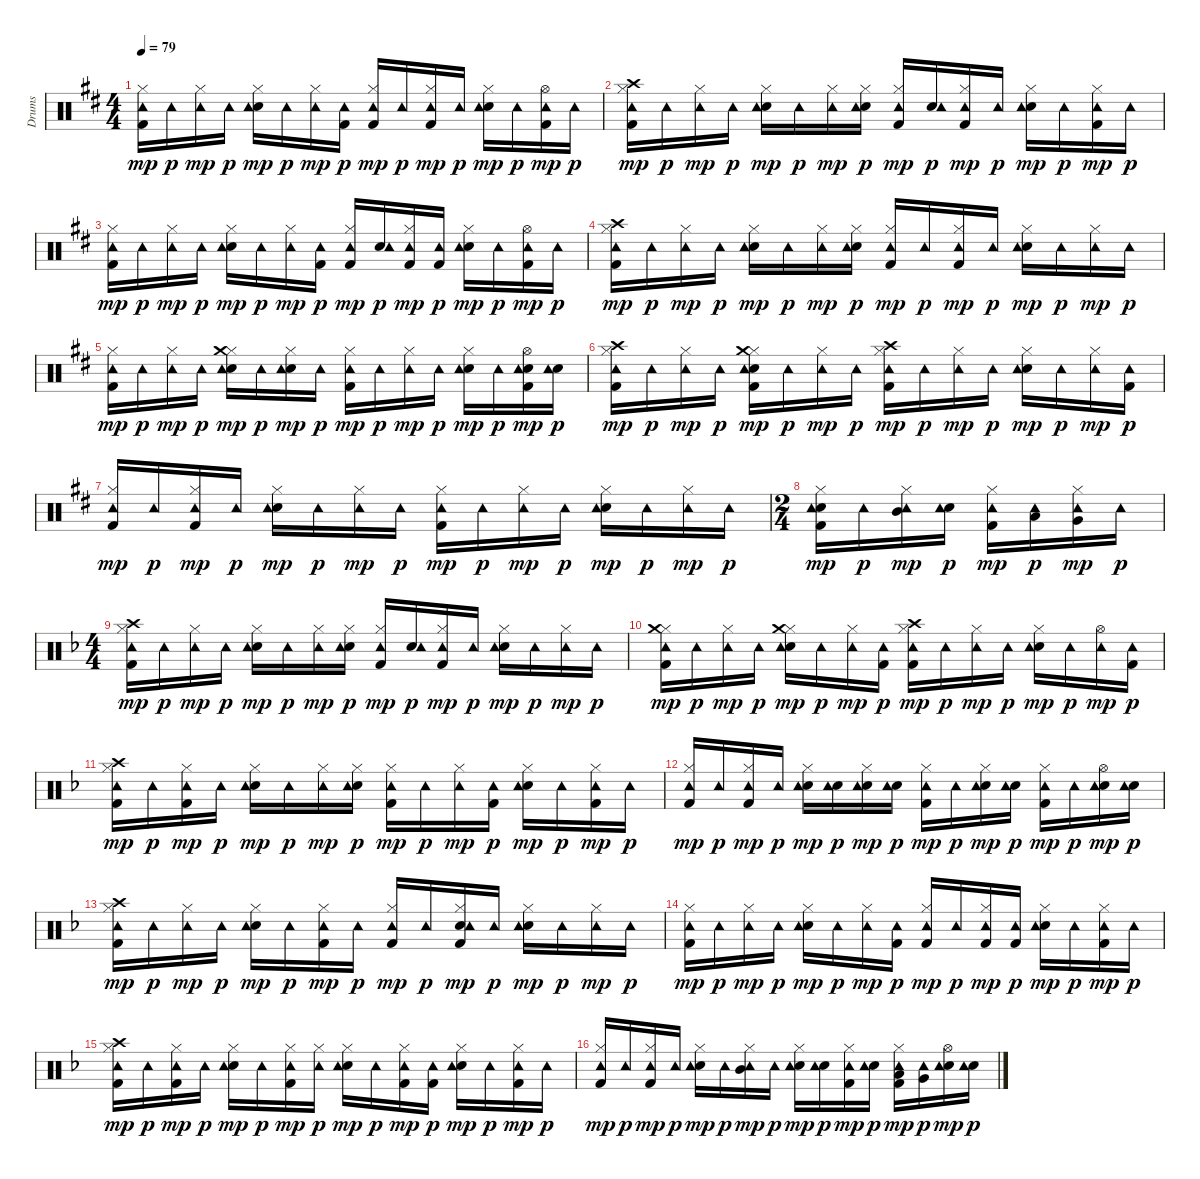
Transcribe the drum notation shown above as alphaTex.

\track ("Drums" "Drums") {instrument percussion}
\staff {score}
\articulation defaults
\ts (4 4)
\tempo 79
\clef neutral
\ks d
("Kick (hit) 2" "Hi-Hat (closed)" "Tambourine (hit)").16{dy mp} "Tambourine (hit)".16{dy p} ("Hi-Hat (closed)" "Tambourine (hit)").16{dy mp} "Tambourine (hit)".16{dy p} ("Electric Snare (hit)" "Hi-Hat (closed)" "Tambourine (hit)").16{dy mp} "Tambourine (hit)".16{dy p} ("Hi-Hat (closed)" "Tambourine (hit)").16{dy mp} ("Kick (hit) 2" "Tambourine (hit)").16{dy p} ("Kick (hit) 2" "Hi-Hat (closed)" "Tambourine (hit)").16{dy mp} "Tambourine (hit)".16{dy p} ("Kick (hit) 2" "Hi-Hat (closed)" "Tambourine (hit)").16{dy mp} "Tambourine (hit)".16{dy p} ("Electric Snare (hit)" "Hi-Hat (closed)" "Tambourine (hit)").16{dy mp} "Tambourine (hit)".16{dy p} ("Kick (hit) 2" "Hi-Hat (open)" "Tambourine (hit)").16{dy mp} "Tambourine (hit)".16{dy p} |
("Kick (hit) 2" "Hi-Hat (closed)" "Crash high (hit)" "Tambourine (hit)").16{dy mp} "Tambourine (hit)".16{dy p} ("Hi-Hat (closed)" "Tambourine (hit)").16{dy mp} "Tambourine (hit)".16{dy p} ("Electric Snare (hit)" "Hi-Hat (closed)" "Tambourine (hit)").16{dy mp} "Tambourine (hit)".16{dy p} ("Hi-Hat (closed)" "Tambourine (hit)").16{dy mp} ("Electric Snare (hit)" "Hi-Hat (closed)" "Tambourine (hit)").16{dy p} ("Kick (hit) 2" "Hi-Hat (closed)" "Tambourine (hit)").16{dy mp} ("Electric Snare (hit)" "Tambourine (hit)").16{dy p} ("Kick (hit) 2" "Hi-Hat (closed)" "Tambourine (hit)").16{dy mp} "Tambourine (hit)".16{dy p} ("Electric Snare (hit)" "Hi-Hat (closed)" "Tambourine (hit)").16{dy mp} "Tambourine (hit)".16{dy p} ("Kick (hit) 2" "Hi-Hat (closed)" "Tambourine (hit)").16{dy mp} "Tambourine (hit)".16{dy p} |
("Kick (hit) 2" "Hi-Hat (closed)" "Tambourine (hit)").16{dy mp} "Tambourine (hit)".16{dy p} ("Hi-Hat (closed)" "Tambourine (hit)").16{dy mp} "Tambourine (hit)".16{dy p} ("Electric Snare (hit)" "Hi-Hat (closed)" "Tambourine (hit)").16{dy mp} "Tambourine (hit)".16{dy p} ("Hi-Hat (closed)" "Tambourine (hit)").16{dy mp} ("Kick (hit) 2" "Tambourine (hit)").16{dy p} ("Kick (hit) 2" "Hi-Hat (closed)" "Tambourine (hit)").16{dy mp} ("Electric Snare (hit)" "Tambourine (hit)").16{dy p} ("Kick (hit) 2" "Hi-Hat (closed)" "Tambourine (hit)").16{dy mp} ("Kick (hit) 2" "Tambourine (hit)").16{dy p} ("Electric Snare (hit)" "Hi-Hat (closed)" "Tambourine (hit)").16{dy mp} "Tambourine (hit)".16{dy p} ("Kick (hit) 2" "Hi-Hat (open)" "Tambourine (hit)").16{dy mp} "Tambourine (hit)".16{dy p} |
("Kick (hit) 2" "Hi-Hat (closed)" "Crash high (hit)" "Tambourine (hit)").16{dy mp} "Tambourine (hit)".16{dy p} ("Hi-Hat (closed)" "Tambourine (hit)").16{dy mp} "Tambourine (hit)".16{dy p} ("Electric Snare (hit)" "Hi-Hat (closed)" "Tambourine (hit)").16{dy mp} "Tambourine (hit)".16{dy p} ("Hi-Hat (closed)" "Tambourine (hit)").16{dy mp} ("Electric Snare (hit)" "Hi-Hat (closed)" "Tambourine (hit)").16{dy p} ("Kick (hit) 2" "Hi-Hat (closed)" "Tambourine (hit)").16{dy mp} "Tambourine (hit)".16{dy p} ("Kick (hit) 2" "Hi-Hat (closed)" "Tambourine (hit)").16{dy mp} "Tambourine (hit)".16{dy p} ("Electric Snare (hit)" "Hi-Hat (closed)" "Tambourine (hit)").16{dy mp} "Tambourine (hit)".16{dy p} ("Hi-Hat (closed)" "Tambourine (hit)").16{dy mp} "Tambourine (hit)".16{dy p} |
("Kick (hit) 2" "Hi-Hat (closed)" "Tambourine (hit)").16{dy mp} "Tambourine (hit)".16{dy p} ("Hi-Hat (closed)" "Tambourine (hit)").16{dy mp} "Tambourine (hit)".16{dy p} ("Electric Snare (hit)" "Hi-Hat (closed)" "Tambourine (hit)" "Crash medium (hit)").16{dy mp} "Tambourine (hit)".16{dy p} ("Electric Snare (hit)" "Hi-Hat (closed)" "Tambourine (hit)").16{dy mp} "Tambourine (hit)".16{dy p} ("Kick (hit) 2" "Hi-Hat (closed)" "Tambourine (hit)").16{dy mp} "Tambourine (hit)".16{dy p} ("Hi-Hat (closed)" "Tambourine (hit)").16{dy mp} "Tambourine (hit)".16{dy p} ("Electric Snare (hit)" "Hi-Hat (closed)" "Tambourine (hit)").16{dy mp} "Tambourine (hit)".16{dy p} ("Kick (hit) 2" "Electric Snare (hit)" "Hi-Hat (open)" "Tambourine (hit)").16{dy mp} ("Electric Snare (hit)" "Tambourine (hit)").16{dy p} |
("Kick (hit) 2" "Hi-Hat (closed)" "Crash high (hit)" "Tambourine (hit)").16{dy mp} "Tambourine (hit)".16{dy p} ("Hi-Hat (closed)" "Tambourine (hit)").16{dy mp} "Tambourine (hit)".16{dy p} ("Kick (hit) 2" "Electric Snare (hit)" "Hi-Hat (closed)" "Tambourine (hit)" "Crash medium (hit)").16{dy mp} "Tambourine (hit)".16{dy p} ("Hi-Hat (closed)" "Tambourine (hit)").16{dy mp} "Tambourine (hit)".16{dy p} ("Kick (hit) 2" "Hi-Hat (closed)" "Crash high (hit)" "Tambourine (hit)").16{dy mp} "Tambourine (hit)".16{dy p} ("Hi-Hat (closed)" "Tambourine (hit)").16{dy mp} "Tambourine (hit)".16{dy p} ("Electric Snare (hit)" "Hi-Hat (closed)" "Tambourine (hit)").16{dy mp} "Tambourine (hit)".16{dy p} ("Hi-Hat (closed)" "Tambourine (hit)").16{dy mp} ("Kick (hit) 2" "Tambourine (hit)").16{dy p} |
("Kick (hit) 2" "Hi-Hat (closed)" "Tambourine (hit)").16{dy mp} "Tambourine (hit)".16{dy p} ("Kick (hit) 2" "Hi-Hat (closed)" "Tambourine (hit)").16{dy mp} "Tambourine (hit)".16{dy p} ("Electric Snare (hit)" "Hi-Hat (closed)" "Tambourine (hit)").16{dy mp} "Tambourine (hit)".16{dy p} ("Hi-Hat (closed)" "Tambourine (hit)").16{dy mp} "Tambourine (hit)".16{dy p} ("Kick (hit) 2" "Hi-Hat (closed)" "Tambourine (hit)").16{dy mp} "Tambourine (hit)".16{dy p} ("Hi-Hat (closed)" "Tambourine (hit)").16{dy mp} "Tambourine (hit)".16{dy p} ("Electric Snare (hit)" "Hi-Hat (closed)" "Tambourine (hit)").16{dy mp} "Tambourine (hit)".16{dy p} ("Hi-Hat (closed)" "Tambourine (hit)").16{dy mp} "Tambourine (hit)".16{dy p} |
\ts (2 4)
("Kick (hit) 2" "Electric Snare (hit)" "Hi-Hat (closed)" "Tambourine (hit)").16{dy mp} "Tambourine (hit)".16{dy p} ("Hi-Hat (closed)" "Mid Tom (hit)" "Tambourine (hit)").16{dy mp} ("Electric Snare (hit)" "Tambourine (hit)").16{dy p} ("Kick (hit) 2" "Hi-Hat (closed)" "Tambourine (hit)").16{dy mp} ("Low Tom (hit)" "Tambourine (hit)").16{dy p} ("Hi-Hat (closed)" "Very Low Tom (hit)" "Tambourine (hit)").16{dy mp} "Tambourine (hit)".16{dy p} |
\ts (4 4)
\ks f
("Kick (hit) 2" "Hi-Hat (closed)" "Crash high (hit)" "Tambourine (hit)").16{dy mp} "Tambourine (hit)".16{dy p} ("Hi-Hat (closed)" "Tambourine (hit)").16{dy mp} "Tambourine (hit)".16{dy p} ("Electric Snare (hit)" "Hi-Hat (closed)" "Tambourine (hit)").16{dy mp} "Tambourine (hit)".16{dy p} ("Hi-Hat (closed)" "Tambourine (hit)").16{dy mp} ("Electric Snare (hit)" "Hi-Hat (closed)" "Tambourine (hit)").16{dy p} ("Kick (hit) 2" "Hi-Hat (closed)" "Tambourine (hit)").16{dy mp} ("Electric Snare (hit)" "Tambourine (hit)").16{dy p} ("Kick (hit) 2" "Hi-Hat (closed)" "Tambourine (hit)").16{dy mp} "Tambourine (hit)".16{dy p} ("Electric Snare (hit)" "Hi-Hat (closed)" "Tambourine (hit)").16{dy mp} "Tambourine (hit)".16{dy p} ("Hi-Hat (closed)" "Tambourine (hit)").16{dy mp} "Tambourine (hit)".16{dy p} |
("Kick (hit) 2" "Hi-Hat (closed)" "Tambourine (hit)" "Crash medium (hit)").16{dy mp} "Tambourine (hit)".16{dy p} ("Hi-Hat (closed)" "Tambourine (hit)").16{dy mp} "Tambourine (hit)".16{dy p} ("Electric Snare (hit)" "Hi-Hat (closed)" "Tambourine (hit)" "Crash medium (hit)").16{dy mp} "Tambourine (hit)".16{dy p} ("Hi-Hat (closed)" "Tambourine (hit)").16{dy mp} ("Kick (hit) 2" "Tambourine (hit)").16{dy p} ("Kick (hit) 2" "Hi-Hat (closed)" "Crash high (hit)" "Tambourine (hit)").16{dy mp} "Tambourine (hit)".16{dy p} ("Hi-Hat (closed)" "Tambourine (hit)").16{dy mp} "Tambourine (hit)".16{dy p} ("Electric Snare (hit)" "Hi-Hat (closed)" "Tambourine (hit)").16{dy mp} "Tambourine (hit)".16{dy p} ("Hi-Hat (open)" "Tambourine (hit)").16{dy mp} ("Kick (hit) 2" "Tambourine (hit)").16{dy p} |
("Kick (hit) 2" "Hi-Hat (closed)" "Crash high (hit)" "Tambourine (hit)").16{dy mp} "Tambourine (hit)".16{dy p} ("Kick (hit) 2" "Hi-Hat (closed)" "Tambourine (hit)").16{dy mp} "Tambourine (hit)".16{dy p} ("Electric Snare (hit)" "Hi-Hat (closed)" "Tambourine (hit)").16{dy mp} "Tambourine (hit)".16{dy p} ("Hi-Hat (closed)" "Tambourine (hit)").16{dy mp} ("Electric Snare (hit)" "Hi-Hat (closed)" "Tambourine (hit)").16{dy p} ("Kick (hit) 2" "Hi-Hat (closed)" "Tambourine (hit)").16{dy mp} "Tambourine (hit)".16{dy p} ("Hi-Hat (closed)" "Tambourine (hit)").16{dy mp} ("Kick (hit) 2" "Tambourine (hit)").16{dy p} ("Electric Snare (hit)" "Hi-Hat (closed)" "Tambourine (hit)").16{dy mp} "Tambourine (hit)".16{dy p} ("Kick (hit) 2" "Hi-Hat (closed)" "Tambourine (hit)").16{dy mp} "Tambourine (hit)".16{dy p} |
("Kick (hit) 2" "Hi-Hat (closed)" "Tambourine (hit)").16{dy mp} "Tambourine (hit)".16{dy p} ("Kick (hit) 2" "Hi-Hat (closed)" "Tambourine (hit)").16{dy mp} "Tambourine (hit)".16{dy p} ("Electric Snare (hit)" "Hi-Hat (closed)" "Tambourine (hit)").16{dy mp} ("Electric Snare (hit)" "Tambourine (hit)").16{dy p} ("Electric Snare (hit)" "Hi-Hat (closed)" "Tambourine (hit)").16{dy mp} ("Electric Snare (hit)" "Tambourine (hit)").16{dy p} ("Kick (hit) 2" "Hi-Hat (closed)" "Tambourine (hit)").16{dy mp} "Tambourine (hit)".16{dy p} ("Electric Snare (hit)" "Hi-Hat (closed)" "Tambourine (hit)").16{dy mp} ("Electric Snare (hit)" "Tambourine (hit)").16{dy p} ("Kick (hit) 2" "Hi-Hat (closed)" "Tambourine (hit)").16{dy mp} "Tambourine (hit)".16{dy p} ("Electric Snare (hit)" "Hi-Hat (open)" "Tambourine (hit)").16{dy mp} ("Electric Snare (hit)" "Tambourine (hit)").16{dy p} |
("Kick (hit) 2" "Hi-Hat (closed)" "Crash high (hit)" "Tambourine (hit)").16{dy mp} "Tambourine (hit)".16{dy p} ("Hi-Hat (closed)" "Tambourine (hit)").16{dy mp} "Tambourine (hit)".16{dy p} ("Electric Snare (hit)" "Hi-Hat (closed)" "Tambourine (hit)").16{dy mp} "Tambourine (hit)".16{dy p} ("Kick (hit) 2" "Hi-Hat (closed)" "Tambourine (hit)").16{dy mp} "Tambourine (hit)".16{dy p} ("Kick (hit) 2" "Hi-Hat (closed)" "Tambourine (hit)").16{dy mp} "Tambourine (hit)".16{dy p} ("Kick (hit) 2" "Electric Snare (hit)" "Hi-Hat (closed)" "Tambourine (hit)").16{dy mp} "Tambourine (hit)".16{dy p} ("Electric Snare (hit)" "Hi-Hat (closed)" "Tambourine (hit)").16{dy mp} "Tambourine (hit)".16{dy p} ("Hi-Hat (closed)" "Tambourine (hit)").16{dy mp} "Tambourine (hit)".16{dy p} |
("Kick (hit) 2" "Hi-Hat (closed)" "Tambourine (hit)").16{dy mp} "Tambourine (hit)".16{dy p} ("Hi-Hat (closed)" "Tambourine (hit)").16{dy mp} "Tambourine (hit)".16{dy p} ("Electric Snare (hit)" "Hi-Hat (closed)" "Tambourine (hit)").16{dy mp} "Tambourine (hit)".16{dy p} ("Hi-Hat (closed)" "Tambourine (hit)").16{dy mp} ("Kick (hit) 2" "Tambourine (hit)").16{dy p} ("Kick (hit) 2" "Hi-Hat (closed)" "Tambourine (hit)").16{dy mp} "Tambourine (hit)".16{dy p} ("Kick (hit) 2" "Hi-Hat (closed)" "Tambourine (hit)").16{dy mp} ("Kick (hit) 2" "Tambourine (hit)").16{dy p} ("Electric Snare (hit)" "Hi-Hat (closed)" "Tambourine (hit)").16{dy mp} "Tambourine (hit)".16{dy p} ("Kick (hit) 2" "Hi-Hat (closed)" "Tambourine (hit)").16{dy mp} "Tambourine (hit)".16{dy p} |
("Kick (hit) 2" "Hi-Hat (closed)" "Crash high (hit)" "Tambourine (hit)").16{dy mp} "Tambourine (hit)".16{dy p} ("Kick (hit) 2" "Hi-Hat (closed)" "Tambourine (hit)").16{dy mp} "Tambourine (hit)".16{dy p} ("Electric Snare (hit)" "Hi-Hat (closed)" "Tambourine (hit)").16{dy mp} "Tambourine (hit)".16{dy p} ("Kick (hit) 2" "Hi-Hat (closed)" "Tambourine (hit)").16{dy mp} ("Hi-Hat (closed)" "Tambourine (hit)").16{dy p} ("Electric Snare (hit)" "Hi-Hat (closed)" "Tambourine (hit)").16{dy mp} "Tambourine (hit)".16{dy p} ("Kick (hit) 2" "Hi-Hat (closed)" "Tambourine (hit)").16{dy mp} ("Kick (hit) 2" "Tambourine (hit)").16{dy p} ("Electric Snare (hit)" "Hi-Hat (closed)" "Tambourine (hit)").16{dy mp} "Tambourine (hit)".16{dy p} ("Kick (hit) 2" "Hi-Hat (closed)" "Tambourine (hit)").16{dy mp} "Tambourine (hit)".16{dy p} |
("Kick (hit) 2" "Hi-Hat (closed)" "Tambourine (hit)").16{dy mp} "Tambourine (hit)".16{dy p} ("Kick (hit) 2" "Hi-Hat (closed)" "Tambourine (hit)").16{dy mp} "Tambourine (hit)".16{dy p} ("Electric Snare (hit)" "Hi-Hat (closed)" "Tambourine (hit)").16{dy mp} "Tambourine (hit)".16{dy p} ("Hi-Hat (closed)" "Mid Tom (hit)" "Tambourine (hit)").16{dy mp} "Tambourine (hit)".16{dy p} ("Electric Snare (hit)" "Hi-Hat (closed)" "Tambourine (hit)").16{dy mp} ("Electric Snare (hit)" "Tambourine (hit)").16{dy p} ("Kick (hit) 2" "Hi-Hat (closed)" "Tambourine (hit)").16{dy mp} ("Electric Snare (hit)" "Tambourine (hit)").16{dy p} ("Kick (hit) 2" "Hi-Hat (closed)" "Low Tom (hit)" "Tambourine (hit)").16{dy mp} ("Very Low Tom (hit)" "Tambourine (hit)").16{dy p} ("Electric Snare (hit)" "Hi-Hat (open)" "Tambourine (hit)").16{dy mp} ("Electric Snare (hit)" "Tambourine (hit)").16{dy p}
